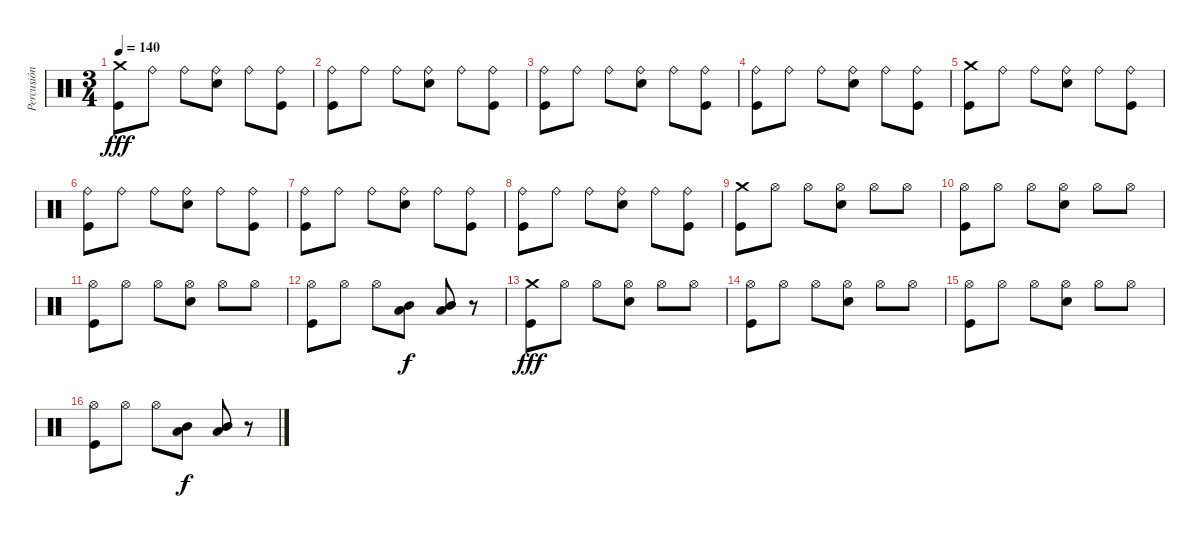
\track ("Percusión" "Percusión") {instrument percussion}
\staff {score}
\articulation defaults
\ts (3 4)
\tempo 140
\clef neutral
\ks c
("Crash medium (hit)" "Kick (hit)").8{dy fff} "Ride (bell)".8 "Ride (bell)".8 ("Ride (bell)" "Snare (hit) 2").8 "Ride (bell)".8 ("Ride (bell)" "Kick (hit)").8 |
("Ride (bell)" "Kick (hit)").8 "Ride (bell)".8 "Ride (bell)".8 ("Ride (bell)" "Snare (hit) 2").8 "Ride (bell)".8 ("Ride (bell)" "Kick (hit)").8 |
("Ride (bell)" "Kick (hit)").8 "Ride (bell)".8 "Ride (bell)".8 ("Ride (bell)" "Snare (hit) 2").8 "Ride (bell)".8 ("Ride (bell)" "Kick (hit)").8 |
("Ride (bell)" "Kick (hit)").8 "Ride (bell)".8 "Ride (bell)".8 ("Ride (bell)" "Snare (hit) 2").8 "Ride (bell)".8 ("Ride (bell)" "Kick (hit)").8 |
("Crash medium (hit)" "Kick (hit)").8 "Ride (bell)".8 "Ride (bell)".8 ("Ride (bell)" "Snare (hit) 2").8 "Ride (bell)".8 ("Ride (bell)" "Kick (hit)").8 |
("Ride (bell)" "Kick (hit)").8 "Ride (bell)".8 "Ride (bell)".8 ("Ride (bell)" "Snare (hit) 2").8 "Ride (bell)".8 ("Ride (bell)" "Kick (hit)").8 |
("Ride (bell)" "Kick (hit)").8 "Ride (bell)".8 "Ride (bell)".8 ("Ride (bell)" "Snare (hit) 2").8 "Ride (bell)".8 ("Ride (bell)" "Kick (hit)").8 |
("Ride (bell)" "Kick (hit)").8 "Ride (bell)".8 "Ride (bell)".8 ("Ride (bell)" "Snare (hit) 2").8 "Ride (bell)".8 ("Ride (bell)" "Kick (hit)").8 |
("Crash medium (hit)" "Kick (hit)").8 "Hi-Hat (open)".8 "Hi-Hat (open)".8 ("Hi-Hat (open)" "Snare (hit) 2").8 "Hi-Hat (open)".8 "Hi-Hat (open)".8 |
("Hi-Hat (open)" "Kick (hit)").8 "Hi-Hat (open)".8 "Hi-Hat (open)".8 ("Hi-Hat (open)" "Snare (hit) 2").8 "Hi-Hat (open)".8 "Hi-Hat (open)".8 |
("Hi-Hat (open)" "Kick (hit)").8 "Hi-Hat (open)".8 "Hi-Hat (open)".8 ("Hi-Hat (open)" "Snare (hit) 2").8 "Hi-Hat (open)".8 "Hi-Hat (open)".8 |
("Hi-Hat (open)" "Kick (hit)").8 "Hi-Hat (open)".8 "Hi-Hat (open)".8 ("Low Tom (hit)" "Mid Tom (hit)").8{dy f} ("Low Tom (hit)" "Mid Tom (hit)").8 r.8 |
("Crash medium (hit)" "Kick (hit)").8{dy fff} "Hi-Hat (open)".8 "Hi-Hat (open)".8 ("Hi-Hat (open)" "Snare (hit) 2").8 "Hi-Hat (open)".8 "Hi-Hat (open)".8 |
("Hi-Hat (open)" "Kick (hit)").8 "Hi-Hat (open)".8 "Hi-Hat (open)".8 ("Hi-Hat (open)" "Snare (hit) 2").8 "Hi-Hat (open)".8 "Hi-Hat (open)".8 |
("Hi-Hat (open)" "Kick (hit)").8 "Hi-Hat (open)".8 "Hi-Hat (open)".8 ("Hi-Hat (open)" "Snare (hit) 2").8 "Hi-Hat (open)".8 "Hi-Hat (open)".8 |
("Hi-Hat (open)" "Kick (hit)").8 "Hi-Hat (open)".8 "Hi-Hat (open)".8 ("Low Tom (hit)" "Mid Tom (hit)").8{dy f} ("Low Tom (hit)" "Mid Tom (hit)").8 r.8
